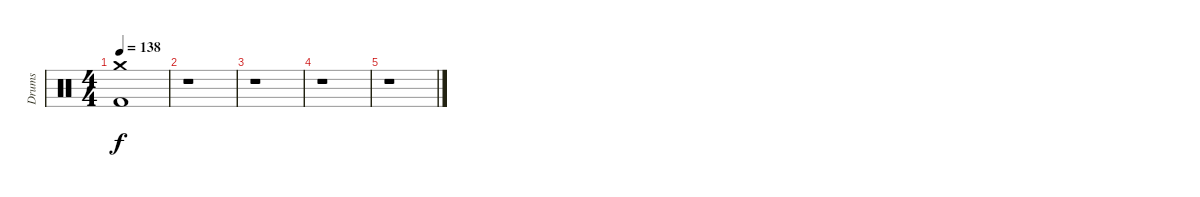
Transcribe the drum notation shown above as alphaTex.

\track ("Drums" "Drums") {instrument percussion}
\staff {score}
\articulation defaults
\ts (4 4)
\tempo 138
\clef neutral
\ks c
("Crash medium (hit)" "Kick (hit) 2").1{dy f} |
r.1 |
r.1 |
r.1 |
r.1
